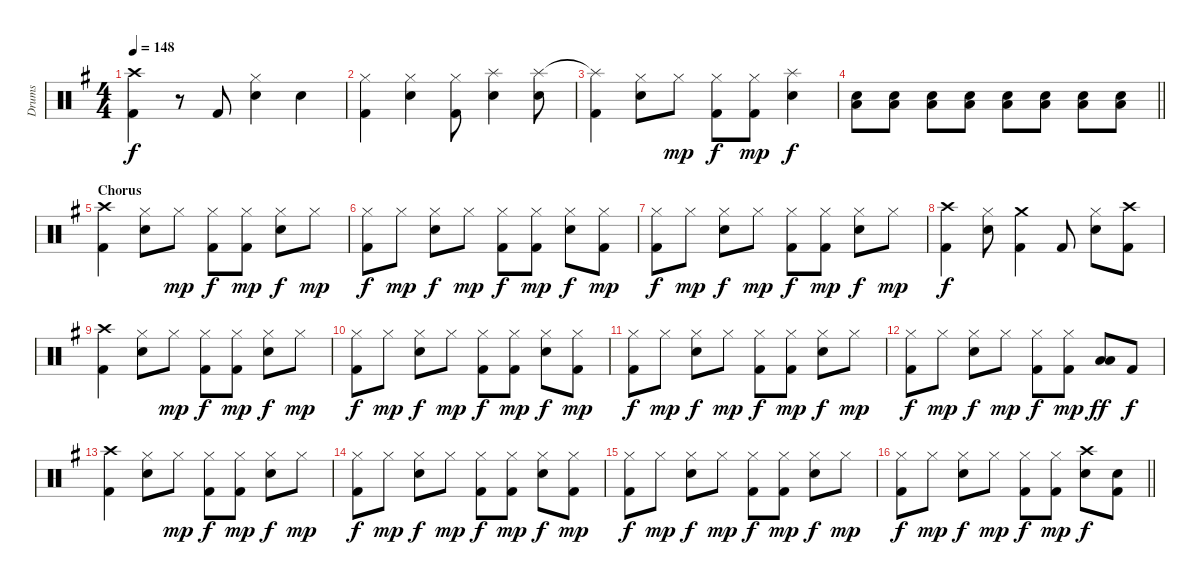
\track ("Drums" "Drums") {instrument percussion}
\staff {score}
\articulation defaults
\ts (4 4)
\tempo 148
\clef neutral
\ks g
("Crash high (hit)" "Kick (hit) 2").4{dy f} r.8 "Kick (hit) 2".8 ("Hi-Hat (closed)" "Electric Snare (hit)").4 "Electric Snare (hit)".4 |
("Hi-Hat (closed)" "Kick (hit) 2").4 ("Hi-Hat (closed)" "Electric Snare (hit)").4 ("Hi-Hat (closed)" "Kick (hit) 2").8 ("Splash (hit)" "Electric Snare (hit)").4 ("Splash (hit)" "Electric Snare (hit)").8 |
("Splash (hit)"{t} "Kick (hit) 2").4 ("Hi-Hat (closed)" "Electric Snare (hit)").8 "Hi-Hat (closed)".8{dy mp} ("Hi-Hat (closed)" "Kick (hit) 2").8{dy f} ("Hi-Hat (closed)" "Kick (hit) 2").8{dy mp} ("Splash (hit)" "Electric Snare (hit)").4{dy f} |
\barLineRight lightlight
("Electric Snare (hit)" "Low Tom (hit)").8 ("Electric Snare (hit)" "Low Tom (hit)").8 ("Electric Snare (hit)" "Low Tom (hit)").8 ("Electric Snare (hit)" "Low Tom (hit)").8 ("Electric Snare (hit)" "Low Tom (hit)").8 ("Electric Snare (hit)" "Low Tom (hit)").8 ("Electric Snare (hit)" "Low Tom (hit)").8 ("Electric Snare (hit)" "Low Tom (hit)").8 |
\section ("" "Chorus")
("Crash high (hit)" "Kick (hit) 2").4 ("Hi-Hat (closed)" "Electric Snare (hit)").8 "Hi-Hat (closed)".8{dy mp} ("Hi-Hat (closed)" "Kick (hit) 2").8{dy f} ("Hi-Hat (closed)" "Kick (hit) 2").8{dy mp} ("Hi-Hat (closed)" "Electric Snare (hit)").8{dy f} "Hi-Hat (closed)".8{dy mp} |
("Hi-Hat (closed)" "Kick (hit) 2").8{dy f} "Hi-Hat (closed)".8{dy mp} ("Hi-Hat (closed)" "Electric Snare (hit)").8{dy f} "Hi-Hat (closed)".8{dy mp} ("Hi-Hat (closed)" "Kick (hit) 2").8{dy f} ("Hi-Hat (closed)" "Kick (hit) 2").8{dy mp} ("Hi-Hat (closed)" "Electric Snare (hit)").8{dy f} ("Hi-Hat (closed)" "Kick (hit) 2").8{dy mp} |
("Hi-Hat (closed)" "Kick (hit) 2").8{dy f} "Hi-Hat (closed)".8{dy mp} ("Hi-Hat (closed)" "Electric Snare (hit)").8{dy f} "Hi-Hat (closed)".8{dy mp} ("Hi-Hat (closed)" "Kick (hit) 2").8{dy f} ("Hi-Hat (closed)" "Kick (hit) 2").8{dy mp} ("Hi-Hat (closed)" "Electric Snare (hit)").8{dy f} "Hi-Hat (closed)".8{dy mp} |
("Crash high (hit)" "Kick (hit) 2").4{dy f} ("Hi-Hat (closed)" "Electric Snare (hit)").8 ("Crash medium (hit)" "Kick (hit) 2").4 "Kick (hit) 2".8 ("Hi-Hat (closed)" "Electric Snare (hit)").8 ("Crash high (hit)" "Kick (hit) 2").8 |
("Crash high (hit)" "Kick (hit) 2").4 ("Hi-Hat (closed)" "Electric Snare (hit)").8 "Hi-Hat (closed)".8{dy mp} ("Hi-Hat (closed)" "Kick (hit) 2").8{dy f} ("Hi-Hat (closed)" "Kick (hit) 2").8{dy mp} ("Hi-Hat (closed)" "Electric Snare (hit)").8{dy f} "Hi-Hat (closed)".8{dy mp} |
("Hi-Hat (closed)" "Kick (hit) 2").8{dy f} "Hi-Hat (closed)".8{dy mp} ("Hi-Hat (closed)" "Electric Snare (hit)").8{dy f} "Hi-Hat (closed)".8{dy mp} ("Hi-Hat (closed)" "Kick (hit) 2").8{dy f} ("Hi-Hat (closed)" "Kick (hit) 2").8{dy mp} ("Hi-Hat (closed)" "Electric Snare (hit)").8{dy f} ("Hi-Hat (closed)" "Kick (hit) 2").8{dy mp} |
("Hi-Hat (closed)" "Kick (hit) 2").8{dy f} "Hi-Hat (closed)".8{dy mp} ("Hi-Hat (closed)" "Electric Snare (hit)").8{dy f} "Hi-Hat (closed)".8{dy mp} ("Hi-Hat (closed)" "Kick (hit) 2").8{dy f} ("Hi-Hat (closed)" "Kick (hit) 2").8{dy mp} ("Hi-Hat (closed)" "Electric Snare (hit)").8{dy f} "Hi-Hat (closed)".8{dy mp} |
("Hi-Hat (closed)" "Kick (hit) 2").8{dy f} "Hi-Hat (closed)".8{dy mp} ("Hi-Hat (closed)" "Electric Snare (hit)").8{dy f} "Hi-Hat (closed)".8{dy mp} ("Hi-Hat (closed)" "Kick (hit) 2").8{dy f} ("Hi-Hat (closed)" "Kick (hit) 2").8{dy mp} ("Low Tom (hit)" "Low Floor Tom (hit)").8{dy ff} "Kick (hit) 2".8{dy f} |
("Crash high (hit)" "Kick (hit) 2").4 ("Hi-Hat (closed)" "Electric Snare (hit)").8 "Hi-Hat (closed)".8{dy mp} ("Hi-Hat (closed)" "Kick (hit) 2").8{dy f} ("Hi-Hat (closed)" "Kick (hit) 2").8{dy mp} ("Hi-Hat (closed)" "Electric Snare (hit)").8{dy f} "Hi-Hat (closed)".8{dy mp} |
("Hi-Hat (closed)" "Kick (hit) 2").8{dy f} "Hi-Hat (closed)".8{dy mp} ("Hi-Hat (closed)" "Electric Snare (hit)").8{dy f} "Hi-Hat (closed)".8{dy mp} ("Hi-Hat (closed)" "Kick (hit) 2").8{dy f} ("Hi-Hat (closed)" "Kick (hit) 2").8{dy mp} ("Hi-Hat (closed)" "Electric Snare (hit)").8{dy f} ("Hi-Hat (closed)" "Kick (hit) 2").8{dy mp} |
("Hi-Hat (closed)" "Kick (hit) 2").8{dy f} "Hi-Hat (closed)".8{dy mp} ("Hi-Hat (closed)" "Electric Snare (hit)").8{dy f} "Hi-Hat (closed)".8{dy mp} ("Hi-Hat (closed)" "Kick (hit) 2").8{dy f} ("Hi-Hat (closed)" "Kick (hit) 2").8{dy mp} ("Hi-Hat (closed)" "Electric Snare (hit)").8{dy f} "Hi-Hat (closed)".8{dy mp} |
\barLineRight lightlight
("Hi-Hat (closed)" "Kick (hit) 2").8{dy f} "Hi-Hat (closed)".8{dy mp} ("Hi-Hat (closed)" "Electric Snare (hit)").8{dy f} "Hi-Hat (closed)".8{dy mp} ("Hi-Hat (closed)" "Kick (hit) 2").8{dy f} ("Hi-Hat (closed)" "Kick (hit) 2").8{dy mp} ("Crash high (hit)" "Electric Snare (hit)").8{dy f} ("Electric Snare (hit)" "Kick (hit) 2").8
